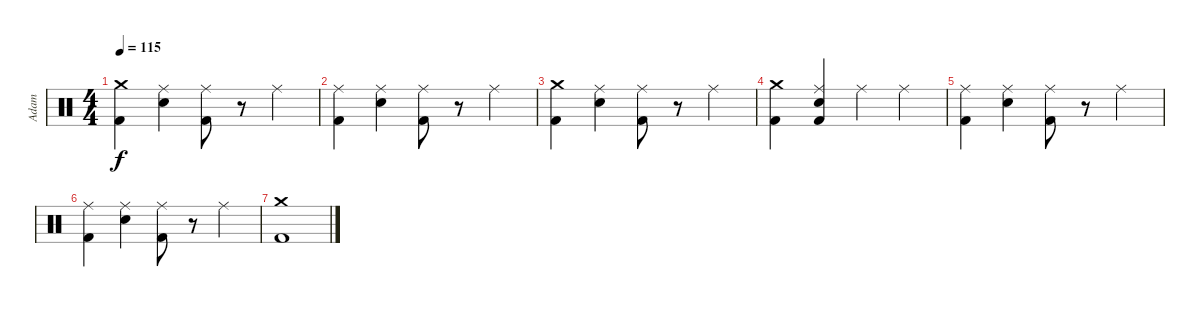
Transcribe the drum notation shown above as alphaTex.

\track ("Adam" "Adam") {instrument percussion}
\staff {score}
\articulation defaults
\ts (4 4)
\tempo 115
\clef neutral
\ks c
("Crash medium (hit)" "Kick (hit) 2").4{dy f} ("Ride (middle)" "Electric Snare (hit)").4 ("Ride (middle)" "Kick (hit) 2").8 r.8 "Ride (middle)".4 |
("Ride (middle)" "Kick (hit) 2").4 ("Ride (middle)" "Electric Snare (hit)").4 ("Ride (middle)" "Kick (hit) 2").8 r.8 "Ride (middle)".4 |
("Crash medium (hit)" "Kick (hit) 2").4 ("Ride (middle)" "Electric Snare (hit)").4 ("Ride (middle)" "Kick (hit) 2").8 r.8 "Ride (middle)".4 |
("Crash medium (hit)" "Kick (hit) 2").4 ("Ride (middle)" "Electric Snare (hit)" "Kick (hit) 2").4 "Ride (middle)".4 "Ride (middle)".4 |
("Ride (middle)" "Kick (hit) 2").4 ("Ride (middle)" "Electric Snare (hit)").4 ("Ride (middle)" "Kick (hit) 2").8 r.8 "Ride (middle)".4 |
("Ride (middle)" "Kick (hit) 2").4 ("Ride (middle)" "Electric Snare (hit)").4 ("Ride (middle)" "Kick (hit) 2").8 r.8 "Ride (middle)".4 |
("Crash medium (hit)" "Kick (hit) 2").1
